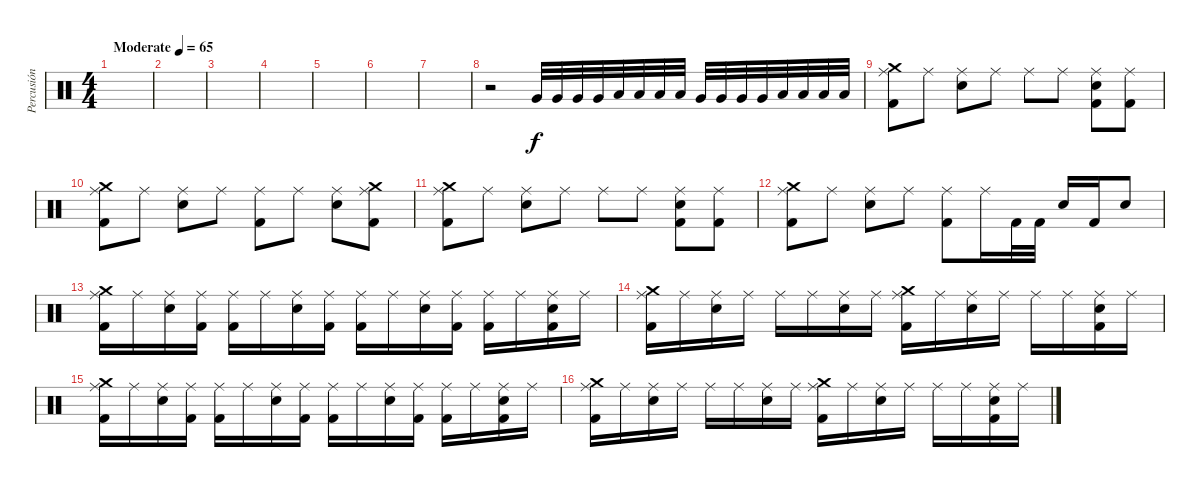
\track ("Percusión" "Percusión") {instrument percussion}
\staff {score}
\articulation defaults
\ts (4 4)
\tempo (65 "Moderate")
\clef neutral
\ks c
|
|
|
|
|
|
|
r.2 "Very Low Tom (hit)".32 "Very Low Tom (hit)".32 "Very Low Tom (hit)".32 "Very Low Tom (hit)".32 "Low Tom (hit)".32 "Low Tom (hit)".32 "Low Tom (hit)".32 "Low Tom (hit)".32 "Very Low Tom (hit)".32 "Very Low Tom (hit)".32 "Very Low Tom (hit)".32 "Very Low Tom (hit)".32 "Low Floor Tom (hit)".32 "Low Floor Tom (hit)".32 "Low Floor Tom (hit)".32 "Low Floor Tom (hit)".32 |
("Ride (middle)" "Crash medium (hit)" "Kick (hit) 2").8 "Ride (middle)".8 ("Ride (middle)" "Snare (hit) 2").8 "Ride (middle)".8 "Ride (middle)".8 "Ride (middle)".8 ("Ride (middle)" "Snare (hit) 2" "Kick (hit) 2").8 ("Ride (middle)" "Kick (hit) 2").8 |
("Ride (middle)" "Crash medium (hit)" "Kick (hit) 2").8 "Ride (middle)".8 ("Ride (middle)" "Snare (hit) 2").8 "Ride (middle)".8 ("Ride (middle)" "Kick (hit) 2").8 "Ride (middle)".8 ("Ride (middle)" "Snare (hit) 2").8 ("Ride (middle)" "Crash medium (hit)" "Kick (hit) 2").8 |
("Ride (middle)" "Crash medium (hit)" "Kick (hit) 2").8 "Ride (middle)".8 ("Ride (middle)" "Snare (hit) 2").8 "Ride (middle)".8 "Ride (middle)".8 "Ride (middle)".8 ("Ride (middle)" "Snare (hit) 2" "Kick (hit) 2").8 ("Ride (middle)" "Kick (hit) 2").8 |
("Ride (middle)" "Crash medium (hit)" "Kick (hit) 2").8 "Ride (middle)".8 ("Ride (middle)" "Snare (hit) 2").8 "Ride (middle)".8 ("Ride (middle)" "Kick (hit) 2").8 "Ride (middle)".16 "Kick (hit) 2".32 "Kick (hit) 2".32 "Snare (hit) 2".16 "Kick (hit) 2".16 "Snare (hit) 2".8 |
("Ride (middle)" "Crash medium (hit)" "Kick (hit) 2").16 "Ride (middle)".16 ("Ride (middle)" "Snare (hit) 2").16 ("Ride (middle)" "Kick (hit) 2").16 ("Ride (middle)" "Kick (hit) 2").16 "Ride (middle)".16 ("Ride (middle)" "Snare (hit) 2").16 ("Ride (middle)" "Kick (hit) 2").16 ("Ride (middle)" "Kick (hit) 2").16 "Ride (middle)".16 ("Ride (middle)" "Snare (hit) 2").16 ("Ride (middle)" "Kick (hit) 2").16 ("Ride (middle)" "Kick (hit) 2").16 "Ride (middle)".16 ("Ride (middle)" "Snare (hit) 2" "Kick (hit) 2").16 "Ride (middle)".16 |
("Ride (middle)" "Crash medium (hit)" "Kick (hit) 2").16 "Ride (middle)".16 ("Ride (middle)" "Snare (hit) 2").16 "Ride (middle)".16 "Ride (middle)".16 "Ride (middle)".16 ("Ride (middle)" "Snare (hit) 2").16 "Ride (middle)".16 ("Ride (middle)" "Crash medium (hit)" "Kick (hit) 2").16 "Ride (middle)".16 ("Ride (middle)" "Snare (hit) 2").16 "Ride (middle)".16 "Ride (middle)".16 "Ride (middle)".16 ("Ride (middle)" "Snare (hit) 2" "Kick (hit) 2").16 "Ride (middle)".16 |
("Ride (middle)" "Crash medium (hit)" "Kick (hit) 2").16 "Ride (middle)".16 ("Ride (middle)" "Snare (hit) 2").16 ("Ride (middle)" "Kick (hit) 2").16 ("Ride (middle)" "Kick (hit) 2").16 "Ride (middle)".16 ("Ride (middle)" "Snare (hit) 2").16 ("Ride (middle)" "Kick (hit) 2").16 ("Ride (middle)" "Kick (hit) 2").16 "Ride (middle)".16 ("Ride (middle)" "Snare (hit) 2").16 ("Ride (middle)" "Kick (hit) 2").16 ("Ride (middle)" "Kick (hit) 2").16 "Ride (middle)".16 ("Ride (middle)" "Snare (hit) 2" "Kick (hit) 2").16 "Ride (middle)".16 |
("Ride (middle)" "Crash medium (hit)" "Kick (hit) 2").16 "Ride (middle)".16 ("Ride (middle)" "Snare (hit) 2").16 "Ride (middle)".16 "Ride (middle)".16 "Ride (middle)".16 ("Ride (middle)" "Snare (hit) 2").16 "Ride (middle)".16 ("Ride (middle)" "Crash medium (hit)" "Kick (hit) 2").16 "Ride (middle)".16 ("Ride (middle)" "Snare (hit) 2").16 "Ride (middle)".16 "Ride (middle)".16 "Ride (middle)".16 ("Ride (middle)" "Snare (hit) 2" "Kick (hit) 2").16 "Ride (middle)".16
